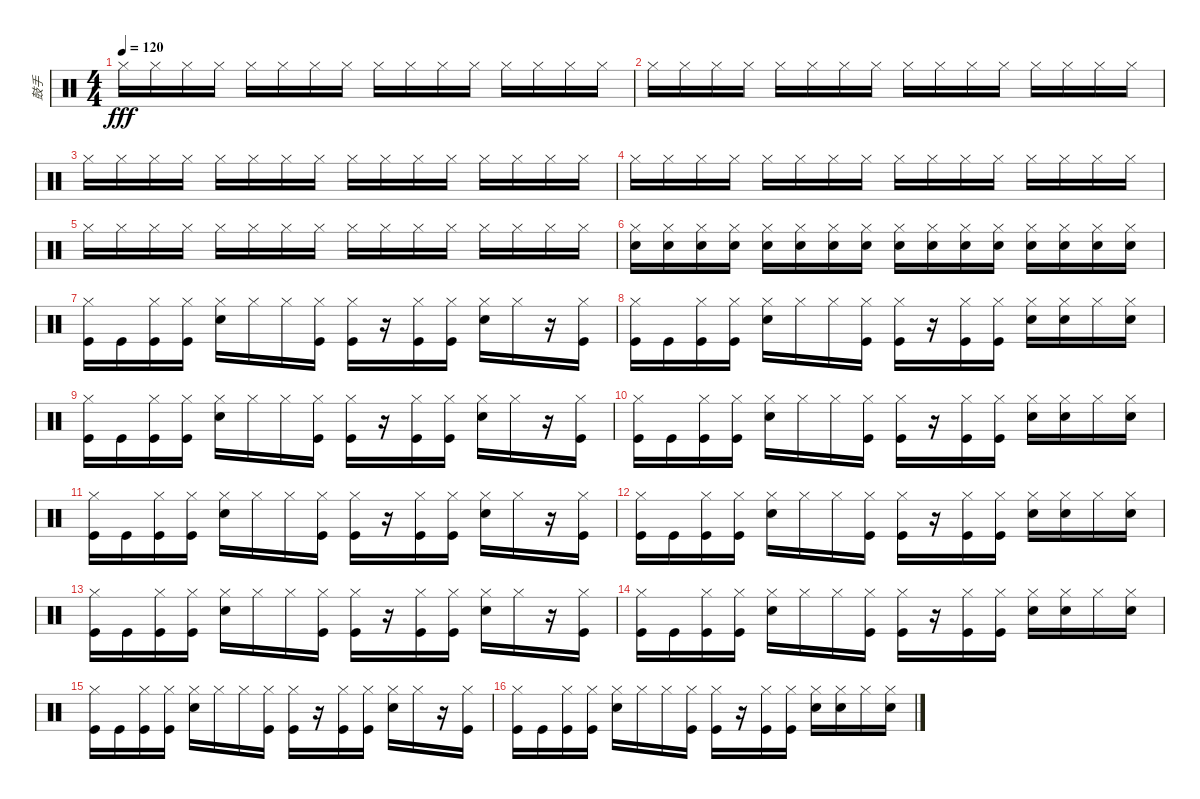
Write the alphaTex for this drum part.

\track ("鼓手" "鼓手") {instrument percussion}
\staff {score}
\articulation defaults
\ts (4 4)
\tempo 120
\clef neutral
\ks c "Hi-Hat (closed)".16{dy fff} "Hi-Hat (closed)".16 "Hi-Hat (closed)".16 "Hi-Hat (closed)".16 "Hi-Hat (closed)".16 "Hi-Hat (closed)".16 "Hi-Hat (closed)".16 "Hi-Hat (closed)".16 "Hi-Hat (closed)".16 "Hi-Hat (closed)".16 "Hi-Hat (closed)".16 "Hi-Hat (closed)".16 "Hi-Hat (closed)".16 "Hi-Hat (closed)".16 "Hi-Hat (closed)".16 "Hi-Hat (closed)".16
|
"Hi-Hat (closed)".16 "Hi-Hat (closed)".16 "Hi-Hat (closed)".16 "Hi-Hat (closed)".16 "Hi-Hat (closed)".16 "Hi-Hat (closed)".16 "Hi-Hat (closed)".16 "Hi-Hat (closed)".16 "Hi-Hat (closed)".16 "Hi-Hat (closed)".16 "Hi-Hat (closed)".16 "Hi-Hat (closed)".16 "Hi-Hat (closed)".16 "Hi-Hat (closed)".16 "Hi-Hat (closed)".16 "Hi-Hat (closed)".16 |
"Hi-Hat (closed)".16 "Hi-Hat (closed)".16 "Hi-Hat (closed)".16 "Hi-Hat (closed)".16 "Hi-Hat (closed)".16 "Hi-Hat (closed)".16 "Hi-Hat (closed)".16 "Hi-Hat (closed)".16 "Hi-Hat (closed)".16 "Hi-Hat (closed)".16 "Hi-Hat (closed)".16 "Hi-Hat (closed)".16 "Hi-Hat (closed)".16 "Hi-Hat (closed)".16 "Hi-Hat (closed)".16 "Hi-Hat (closed)".16 |
"Hi-Hat (closed)".16 "Hi-Hat (closed)".16 "Hi-Hat (closed)".16 "Hi-Hat (closed)".16 "Hi-Hat (closed)".16 "Hi-Hat (closed)".16 "Hi-Hat (closed)".16 "Hi-Hat (closed)".16 "Hi-Hat (closed)".16 "Hi-Hat (closed)".16 "Hi-Hat (closed)".16 "Hi-Hat (closed)".16 "Hi-Hat (closed)".16 "Hi-Hat (closed)".16 "Hi-Hat (closed)".16 "Hi-Hat (closed)".16 |
"Hi-Hat (closed)".16 "Hi-Hat (closed)".16 "Hi-Hat (closed)".16 "Hi-Hat (closed)".16 "Hi-Hat (closed)".16 "Hi-Hat (closed)".16 "Hi-Hat (closed)".16 "Hi-Hat (closed)".16 "Hi-Hat (closed)".16 "Hi-Hat (closed)".16 "Hi-Hat (closed)".16 "Hi-Hat (closed)".16 "Hi-Hat (closed)".16 "Hi-Hat (closed)".16 "Hi-Hat (closed)".16 "Hi-Hat (closed)".16 |
("Snare (hit) 2" "Hi-Hat (closed)").16 ("Snare (hit) 2" "Hi-Hat (closed)").16 ("Snare (hit) 2" "Hi-Hat (closed)").16 ("Snare (hit) 2" "Hi-Hat (closed)").16 ("Snare (hit) 2" "Hi-Hat (closed)").16 ("Snare (hit) 2" "Hi-Hat (closed)").16 ("Snare (hit) 2" "Hi-Hat (closed)").16 ("Snare (hit) 2" "Hi-Hat (closed)").16 ("Snare (hit) 2" "Hi-Hat (closed)").16 ("Snare (hit) 2" "Hi-Hat (closed)").16 ("Snare (hit) 2" "Hi-Hat (closed)").16 ("Snare (hit) 2" "Hi-Hat (closed)").16 ("Snare (hit) 2" "Hi-Hat (closed)").16 ("Snare (hit) 2" "Hi-Hat (closed)").16 ("Snare (hit) 2" "Hi-Hat (closed)").16 ("Snare (hit) 2" "Hi-Hat (closed)").16 |
("Kick (hit)" "Hi-Hat (closed)").16 "Kick (hit)".16 ("Kick (hit)" "Hi-Hat (closed)").16 ("Kick (hit)" "Hi-Hat (closed)").16 ("Snare (hit) 2" "Hi-Hat (closed)").16 "Hi-Hat (closed)".16 "Hi-Hat (closed)".16 ("Kick (hit)" "Hi-Hat (closed)").16 ("Kick (hit)" "Hi-Hat (closed)").16 r.16 ("Kick (hit)" "Hi-Hat (closed)").16 ("Kick (hit)" "Hi-Hat (closed)").16 ("Snare (hit) 2" "Hi-Hat (closed)").16 "Hi-Hat (closed)".16 r.16 ("Kick (hit)" "Hi-Hat (closed)").16 |
("Kick (hit)" "Hi-Hat (closed)").16 "Kick (hit)".16 ("Kick (hit)" "Hi-Hat (closed)").16 ("Kick (hit)" "Hi-Hat (closed)").16 ("Snare (hit) 2" "Hi-Hat (closed)").16 "Hi-Hat (closed)".16 "Hi-Hat (closed)".16 ("Kick (hit)" "Hi-Hat (closed)").16 ("Kick (hit)" "Hi-Hat (closed)").16 r.16 ("Kick (hit)" "Hi-Hat (closed)").16 ("Kick (hit)" "Hi-Hat (closed)").16 ("Snare (hit) 2" "Hi-Hat (closed)").16 ("Snare (hit) 2" "Hi-Hat (closed)").16 "Hi-Hat (closed)".16 ("Snare (hit) 2" "Hi-Hat (closed)").16 |
("Kick (hit)" "Hi-Hat (closed)").16 "Kick (hit)".16 ("Kick (hit)" "Hi-Hat (closed)").16 ("Kick (hit)" "Hi-Hat (closed)").16 ("Snare (hit) 2" "Hi-Hat (closed)").16 "Hi-Hat (closed)".16 "Hi-Hat (closed)".16 ("Kick (hit)" "Hi-Hat (closed)").16 ("Kick (hit)" "Hi-Hat (closed)").16 r.16 ("Kick (hit)" "Hi-Hat (closed)").16 ("Kick (hit)" "Hi-Hat (closed)").16 ("Snare (hit) 2" "Hi-Hat (closed)").16 "Hi-Hat (closed)".16 r.16 ("Kick (hit)" "Hi-Hat (closed)").16 |
("Kick (hit)" "Hi-Hat (closed)").16 "Kick (hit)".16 ("Kick (hit)" "Hi-Hat (closed)").16 ("Kick (hit)" "Hi-Hat (closed)").16 ("Snare (hit) 2" "Hi-Hat (closed)").16 "Hi-Hat (closed)".16 "Hi-Hat (closed)".16 ("Kick (hit)" "Hi-Hat (closed)").16 ("Kick (hit)" "Hi-Hat (closed)").16 r.16 ("Kick (hit)" "Hi-Hat (closed)").16 ("Kick (hit)" "Hi-Hat (closed)").16 ("Snare (hit) 2" "Hi-Hat (closed)").16 ("Snare (hit) 2" "Hi-Hat (closed)").16 "Hi-Hat (closed)".16 ("Snare (hit) 2" "Hi-Hat (closed)").16 |
("Kick (hit)" "Hi-Hat (closed)").16 "Kick (hit)".16 ("Kick (hit)" "Hi-Hat (closed)").16 ("Kick (hit)" "Hi-Hat (closed)").16 ("Snare (hit) 2" "Hi-Hat (closed)").16 "Hi-Hat (closed)".16 "Hi-Hat (closed)".16 ("Kick (hit)" "Hi-Hat (closed)").16 ("Kick (hit)" "Hi-Hat (closed)").16 r.16 ("Kick (hit)" "Hi-Hat (closed)").16 ("Kick (hit)" "Hi-Hat (closed)").16 ("Snare (hit) 2" "Hi-Hat (closed)").16 "Hi-Hat (closed)".16 r.16 ("Kick (hit)" "Hi-Hat (closed)").16 |
("Kick (hit)" "Hi-Hat (closed)").16 "Kick (hit)".16 ("Kick (hit)" "Hi-Hat (closed)").16 ("Kick (hit)" "Hi-Hat (closed)").16 ("Snare (hit) 2" "Hi-Hat (closed)").16 "Hi-Hat (closed)".16 "Hi-Hat (closed)".16 ("Kick (hit)" "Hi-Hat (closed)").16 ("Kick (hit)" "Hi-Hat (closed)").16 r.16 ("Kick (hit)" "Hi-Hat (closed)").16 ("Kick (hit)" "Hi-Hat (closed)").16 ("Snare (hit) 2" "Hi-Hat (closed)").16 ("Snare (hit) 2" "Hi-Hat (closed)").16 "Hi-Hat (closed)".16 ("Snare (hit) 2" "Hi-Hat (closed)").16 |
("Kick (hit)" "Hi-Hat (closed)").16 "Kick (hit)".16 ("Kick (hit)" "Hi-Hat (closed)").16 ("Kick (hit)" "Hi-Hat (closed)").16 ("Snare (hit) 2" "Hi-Hat (closed)").16 "Hi-Hat (closed)".16 "Hi-Hat (closed)".16 ("Kick (hit)" "Hi-Hat (closed)").16 ("Kick (hit)" "Hi-Hat (closed)").16 r.16 ("Kick (hit)" "Hi-Hat (closed)").16 ("Kick (hit)" "Hi-Hat (closed)").16 ("Snare (hit) 2" "Hi-Hat (closed)").16 "Hi-Hat (closed)".16 r.16 ("Kick (hit)" "Hi-Hat (closed)").16 |
("Kick (hit)" "Hi-Hat (closed)").16 "Kick (hit)".16 ("Kick (hit)" "Hi-Hat (closed)").16 ("Kick (hit)" "Hi-Hat (closed)").16 ("Snare (hit) 2" "Hi-Hat (closed)").16 "Hi-Hat (closed)".16 "Hi-Hat (closed)".16 ("Kick (hit)" "Hi-Hat (closed)").16 ("Kick (hit)" "Hi-Hat (closed)").16 r.16 ("Kick (hit)" "Hi-Hat (closed)").16 ("Kick (hit)" "Hi-Hat (closed)").16 ("Snare (hit) 2" "Hi-Hat (closed)").16 ("Snare (hit) 2" "Hi-Hat (closed)").16 "Hi-Hat (closed)".16 ("Snare (hit) 2" "Hi-Hat (closed)").16 |
("Kick (hit)" "Hi-Hat (closed)").16 "Kick (hit)".16 ("Kick (hit)" "Hi-Hat (closed)").16 ("Kick (hit)" "Hi-Hat (closed)").16 ("Snare (hit) 2" "Hi-Hat (closed)").16 "Hi-Hat (closed)".16 "Hi-Hat (closed)".16 ("Kick (hit)" "Hi-Hat (closed)").16 ("Kick (hit)" "Hi-Hat (closed)").16 r.16 ("Kick (hit)" "Hi-Hat (closed)").16 ("Kick (hit)" "Hi-Hat (closed)").16 ("Snare (hit) 2" "Hi-Hat (closed)").16 "Hi-Hat (closed)".16 r.16 ("Kick (hit)" "Hi-Hat (closed)").16 |
("Kick (hit)" "Hi-Hat (closed)").16 "Kick (hit)".16 ("Kick (hit)" "Hi-Hat (closed)").16 ("Kick (hit)" "Hi-Hat (closed)").16 ("Snare (hit) 2" "Hi-Hat (closed)").16 "Hi-Hat (closed)".16 "Hi-Hat (closed)".16 ("Kick (hit)" "Hi-Hat (closed)").16 ("Kick (hit)" "Hi-Hat (closed)").16 r.16 ("Kick (hit)" "Hi-Hat (closed)").16 ("Kick (hit)" "Hi-Hat (closed)").16 ("Snare (hit) 2" "Hi-Hat (closed)").16 ("Snare (hit) 2" "Hi-Hat (closed)").16 "Hi-Hat (closed)".16 ("Snare (hit) 2" "Hi-Hat (closed)").16
